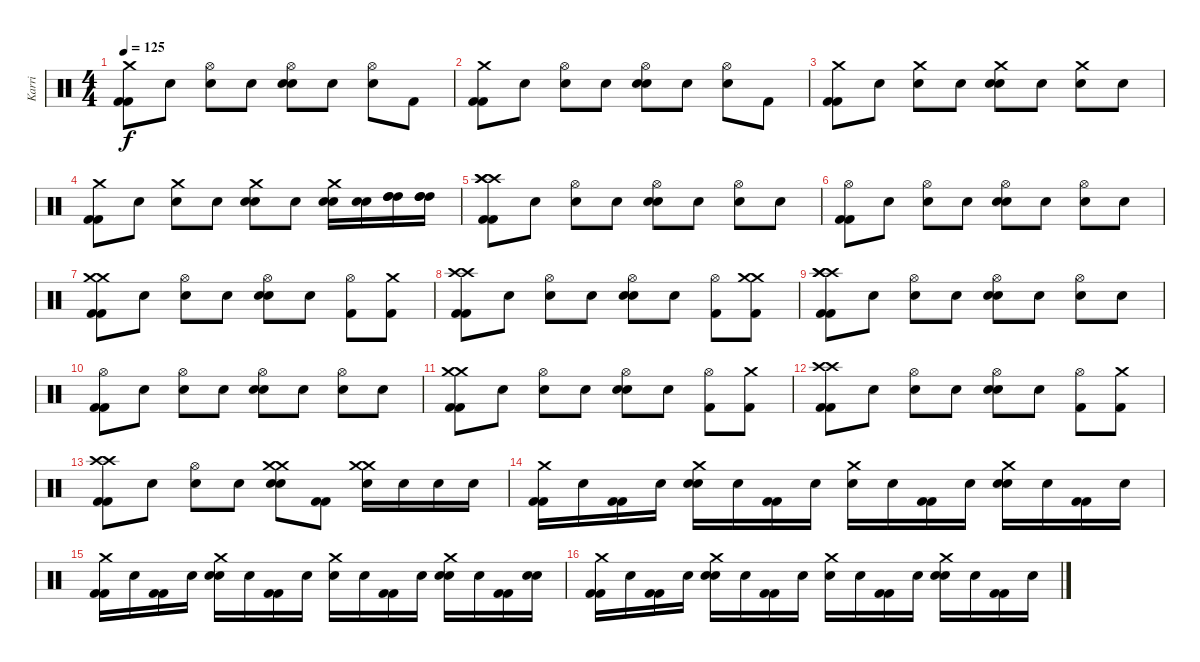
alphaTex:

\track ("Karri" "Karri") {instrument percussion}
\staff {score}
\articulation defaults
\ts (4 4)
\tempo 125
\clef neutral
\ks c
("Crash medium (hit)" "Kick (hit) 2" "Kick (hit) 2").8{dy f} "Snare (hit)"{x}.8 ("Hi-Hat (open)" "Snare (hit)"{x}).8 "Snare (hit)"{x}.8 ("Hi-Hat (open)" "Snare (hit) 2" "Snare (hit) 2").8 "Snare (hit)"{x}.8 ("Hi-Hat (open)" "Snare (hit)"{x}).8 "Kick (hit) 2"{x}.8 |
("Crash medium (hit)" "Kick (hit) 2" "Kick (hit) 2").8 "Snare (hit)"{x}.8 ("Hi-Hat (open)" "Snare (hit)"{x}).8 "Snare (hit)"{x}.8 ("Hi-Hat (open)" "Snare (hit) 2" "Snare (hit) 2").8 "Snare (hit)"{x}.8 ("Hi-Hat (open)" "Snare (hit)"{x}).8 "Kick (hit) 2"{x}.8 |
("Crash medium (hit)" "Kick (hit) 2" "Kick (hit) 2").8 "Snare (hit)"{x}.8 ("Crash medium (hit)" "Snare (hit)"{x}).8 "Snare (hit)"{x}.8 ("Crash medium (hit)" "Snare (hit) 2" "Snare (hit) 2").8 "Snare (hit)"{x}.8 ("Crash medium (hit)" "Snare (hit)"{x}).8 "Snare (hit)"{x}.8 |
("Crash medium (hit)" "Kick (hit) 2" "Kick (hit) 2").8 "Snare (hit)"{x}.8 ("Crash medium (hit)" "Snare (hit)"{x}).8 "Snare (hit)"{x}.8 ("Crash medium (hit)" "Snare (hit) 2" "Snare (hit) 2").8 "Snare (hit)"{x}.8 ("Crash medium (hit)" "Snare (hit) 2" "Snare (hit) 2").16 ("Snare (hit) 2" "Snare (hit) 2").16 ("High Tom (hit)" "High Tom (hit)" "High Tom (hit)").16 ("High Tom (hit)" "High Tom (hit)" "High Tom (hit)").16 |
("Crash high (hit)" "Crash high (hit)" "Crash high (hit)" "Kick (hit) 2" "Kick (hit) 2").8 "Snare (hit)"{x}.8 ("Hi-Hat (open)" "Snare (hit)"{x}).8 "Snare (hit)"{x}.8 ("Hi-Hat (open)" "Snare (hit) 2" "Snare (hit) 2").8 "Snare (hit)"{x}.8 ("Hi-Hat (open)" "Snare (hit)"{x}).8 "Snare (hit)"{x}.8 |
("Hi-Hat (open)" "Kick (hit) 2" "Kick (hit) 2").8 "Snare (hit)"{x}.8 ("Hi-Hat (open)" "Snare (hit)"{x}).8 "Snare (hit)"{x}.8 ("Hi-Hat (open)" "Snare (hit) 2" "Snare (hit) 2").8 "Snare (hit)"{x}.8 ("Hi-Hat (open)" "Snare (hit)"{x}).8 "Snare (hit)"{x}.8 |
("Crash medium (hit)" "Crash medium (hit)" "Kick (hit) 2" "Kick (hit) 2").8 "Snare (hit)"{x}.8 ("Hi-Hat (open)" "Snare (hit)"{x}).8 "Snare (hit)"{x}.8 ("Hi-Hat (open)" "Snare (hit) 2" "Snare (hit) 2").8 "Snare (hit)"{x}.8 ("Hi-Hat (open)" "Kick (hit) 2"{x}).8 ("Crash medium (hit)" "Kick (hit) 2").8 |
("Crash high (hit)" "Crash high (hit)" "Kick (hit) 2" "Kick (hit) 2").8 "Snare (hit)"{x}.8 ("Hi-Hat (open)" "Snare (hit)"{x}).8 "Snare (hit)"{x}.8 ("Hi-Hat (open)" "Snare (hit) 2" "Snare (hit) 2").8 "Snare (hit)"{x}.8 ("Hi-Hat (open)" "Kick (hit) 2"{x}).8 ("Crash medium (hit)" "Crash medium (hit)" "Kick (hit) 2").8 |
("Crash high (hit)" "Crash high (hit)" "Crash high (hit)" "Kick (hit) 2" "Kick (hit) 2").8 "Snare (hit)"{x}.8 ("Hi-Hat (open)" "Snare (hit)"{x}).8 "Snare (hit)"{x}.8 ("Hi-Hat (open)" "Snare (hit) 2" "Snare (hit) 2").8 "Snare (hit)"{x}.8 ("Hi-Hat (open)" "Snare (hit)"{x}).8 "Snare (hit)"{x}.8 |
("Hi-Hat (open)" "Kick (hit) 2" "Kick (hit) 2").8 "Snare (hit)"{x}.8 ("Hi-Hat (open)" "Snare (hit)"{x}).8 "Snare (hit)"{x}.8 ("Hi-Hat (open)" "Snare (hit) 2" "Snare (hit) 2").8 "Snare (hit)"{x}.8 ("Hi-Hat (open)" "Snare (hit)"{x}).8 "Snare (hit)"{x}.8 |
("Crash medium (hit)" "Crash medium (hit)" "Kick (hit) 2" "Kick (hit) 2").8 "Snare (hit)"{x}.8 ("Hi-Hat (open)" "Snare (hit)"{x}).8 "Snare (hit)"{x}.8 ("Hi-Hat (open)" "Snare (hit) 2" "Snare (hit) 2").8 "Snare (hit)"{x}.8 ("Hi-Hat (open)" "Kick (hit) 2"{x}).8 ("Crash medium (hit)" "Kick (hit) 2").8 |
("Crash high (hit)" "Crash high (hit)" "Kick (hit) 2" "Kick (hit) 2").8 "Snare (hit)"{x}.8 ("Hi-Hat (open)" "Snare (hit)"{x}).8 "Snare (hit)"{x}.8 ("Hi-Hat (open)" "Snare (hit) 2" "Snare (hit) 2").8 "Snare (hit)"{x}.8 ("Hi-Hat (open)" "Kick (hit) 2"{x}).8 ("Crash medium (hit)" "Kick (hit) 2").8 |
("Crash high (hit)" "Crash high (hit)" "Kick (hit) 2" "Kick (hit) 2").8 "Snare (hit)"{x}.8 ("Hi-Hat (open)" "Snare (hit)"{x}).8 "Snare (hit)"{x}.8 ("Crash medium (hit)" "Crash medium (hit)" "Snare (hit) 2" "Snare (hit) 2").8 ("Kick (hit) 2" "Kick (hit) 2").8 ("Crash medium (hit)" "Crash medium (hit)" "Snare (hit) 2").16 "Snare (hit) 2"{x}.16 "Snare (hit) 2".16 "Snare (hit) 2".16 |
("Crash medium (hit)" "Kick (hit) 2" "Kick (hit) 2").16 "Snare (hit)"{x}.16 ("Kick (hit) 2" "Kick (hit) 2").16 "Snare (hit)"{x}.16 ("Crash medium (hit)" "Snare (hit) 2" "Snare (hit) 2").16 "Snare (hit)"{x}.16 ("Kick (hit) 2" "Kick (hit) 2").16 "Snare (hit)"{x}.16 ("Crash medium (hit)" "Snare (hit)"{x}).16 "Snare (hit)"{x}.16 ("Kick (hit) 2" "Kick (hit) 2").16 "Snare (hit)"{x}.16 ("Crash medium (hit)" "Snare (hit) 2" "Snare (hit) 2").16 "Snare (hit)"{x}.16 ("Kick (hit) 2" "Kick (hit) 2").16 "Snare (hit)"{x}.16 |
("Crash medium (hit)" "Kick (hit) 2" "Kick (hit) 2").16 "Snare (hit)"{x}.16 ("Kick (hit) 2" "Kick (hit) 2").16 "Snare (hit)"{x}.16 ("Crash medium (hit)" "Snare (hit) 2" "Snare (hit) 2").16 "Snare (hit)"{x}.16 ("Kick (hit) 2" "Kick (hit) 2").16 "Snare (hit)"{x}.16 ("Crash medium (hit)" "Snare (hit)"{x}).16 "Snare (hit)"{x}.16 ("Kick (hit) 2" "Kick (hit) 2").16 "Snare (hit)"{x}.16 ("Crash medium (hit)" "Snare (hit) 2" "Snare (hit) 2").16 "Snare (hit)"{x}.16 ("Kick (hit) 2" "Kick (hit) 2").16 ("Snare (hit) 2"{x} "Snare (hit) 2"{x}).16 |
("Crash medium (hit)" "Kick (hit) 2" "Kick (hit) 2").16 "Snare (hit)"{x}.16 ("Kick (hit) 2" "Kick (hit) 2").16 "Snare (hit)"{x}.16 ("Crash medium (hit)" "Snare (hit) 2" "Snare (hit) 2").16 "Snare (hit)"{x}.16 ("Kick (hit) 2" "Kick (hit) 2").16 "Snare (hit)"{x}.16 ("Crash medium (hit)" "Snare (hit)"{x}).16 "Snare (hit)"{x}.16 ("Kick (hit) 2" "Kick (hit) 2").16 "Snare (hit)"{x}.16 ("Crash medium (hit)" "Snare (hit) 2" "Snare (hit) 2").16 "Snare (hit)"{x}.16 ("Kick (hit) 2" "Kick (hit) 2").16 "Snare (hit)"{x}.16
